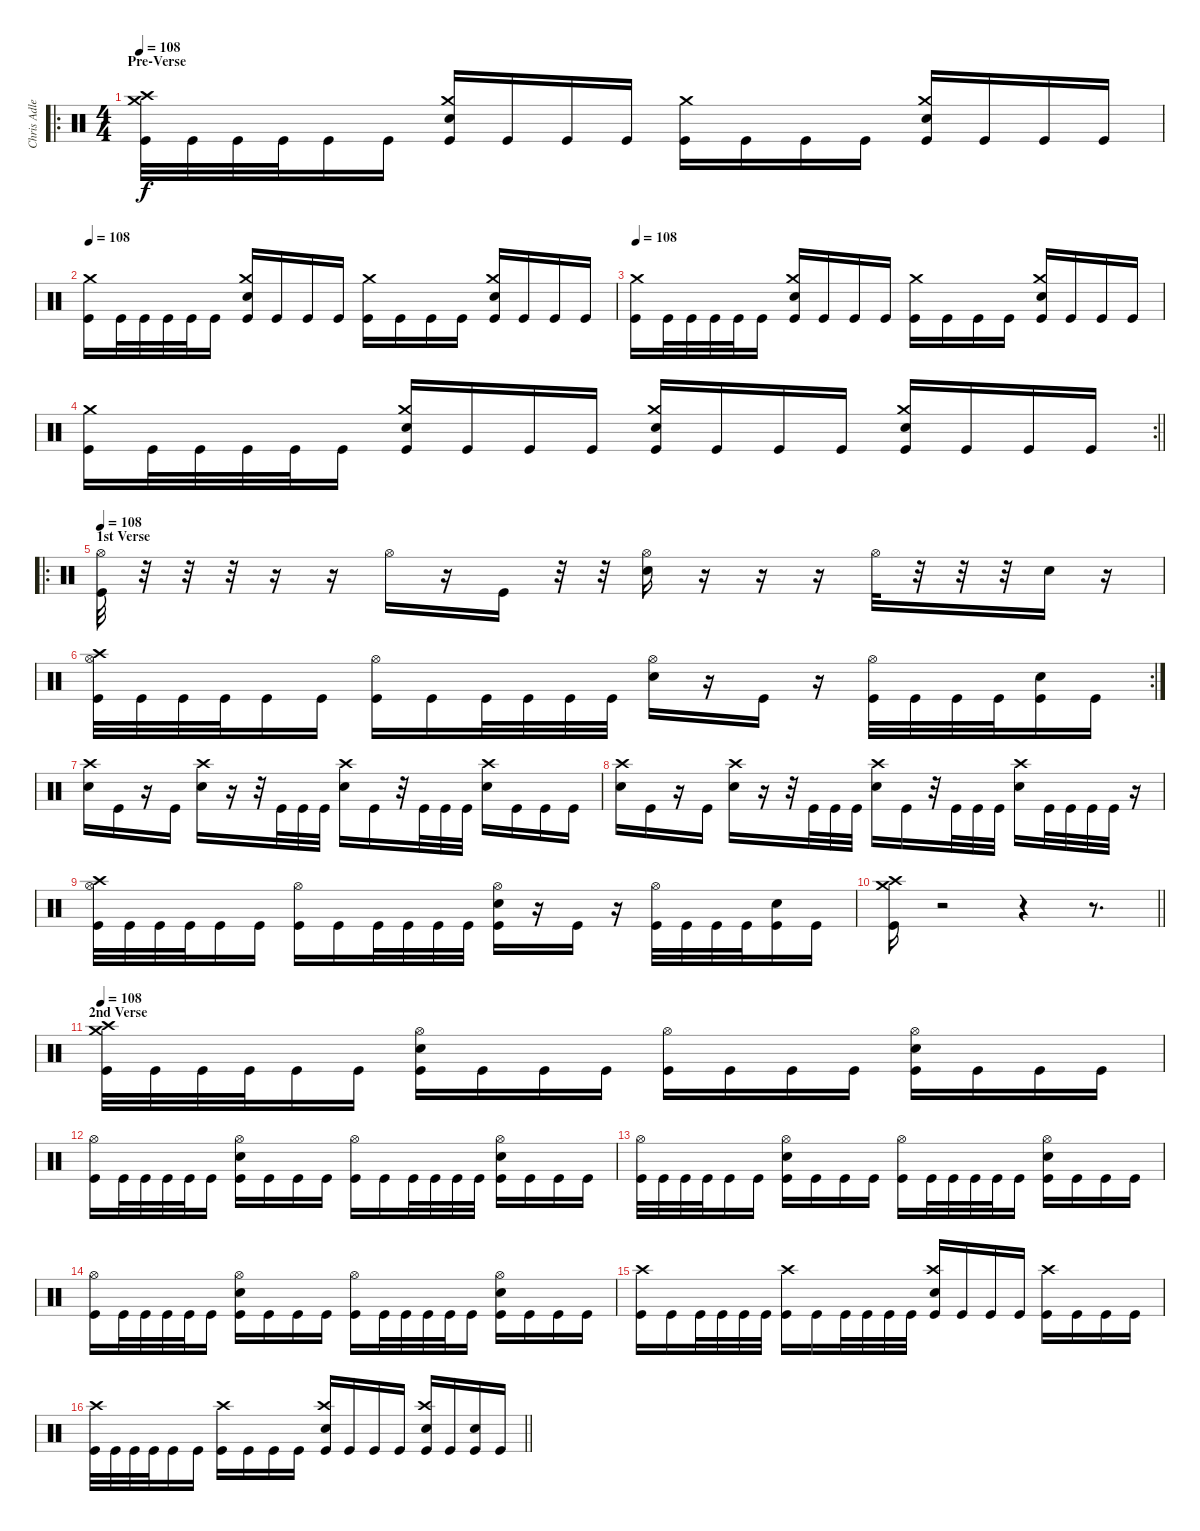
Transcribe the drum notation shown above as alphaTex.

\track ("Chris Adler (Drumkit)" "Chris Adle") {instrument percussion}
\staff {score}
\articulation defaults
\ro
\ts (4 4)
\section ("" "Pre-Verse")
\tempo 108
\clef neutral
\ks c
("Kick (hit)" "Crash high (hit)" "Crash medium (hit)").32{dy f} "Kick (hit)".32 "Kick (hit)".32 "Kick (hit)".32 "Kick (hit)".16 "Kick (hit)".16 ("Kick (hit)" "Snare (hit) 2" "Crash medium (hit)").16 "Kick (hit)".16 "Kick (hit)".16 "Kick (hit)".16 ("Kick (hit)" "Crash medium (hit)").16 "Kick (hit)".16 "Kick (hit)".16 "Kick (hit)".16 ("Kick (hit)" "Snare (hit) 2" "Crash medium (hit)").16 "Kick (hit)".16 "Kick (hit)".16 "Kick (hit)".16 |
\tempo 108
("Kick (hit)" "Crash medium (hit)").16 "Kick (hit)".32 "Kick (hit)".32 "Kick (hit)".32 "Kick (hit)".32 "Kick (hit)".16 ("Kick (hit)" "Snare (hit) 2" "Crash medium (hit)").16 "Kick (hit)".16 "Kick (hit)".16 "Kick (hit)".16 ("Kick (hit)" "Crash medium (hit)").16 "Kick (hit)".16 "Kick (hit)".16 "Kick (hit)".16 ("Kick (hit)" "Snare (hit) 2" "Crash medium (hit)").16 "Kick (hit)".16 "Kick (hit)".16 "Kick (hit)".16 |
\tempo 108
("Kick (hit)" "Crash medium (hit)").16 "Kick (hit)".32 "Kick (hit)".32 "Kick (hit)".32 "Kick (hit)".32 "Kick (hit)".16 ("Kick (hit)" "Snare (hit) 2" "Crash medium (hit)").16 "Kick (hit)".16 "Kick (hit)".16 "Kick (hit)".16 ("Kick (hit)" "Crash medium (hit)").16 "Kick (hit)".16 "Kick (hit)".16 "Kick (hit)".16 ("Kick (hit)" "Snare (hit) 2" "Crash medium (hit)").16 "Kick (hit)".16 "Kick (hit)".16 "Kick (hit)".16 |
\rc 2
\barLineRight lightlight
("Kick (hit)" "Crash medium (hit)").16 "Kick (hit)".32 "Kick (hit)".32 "Kick (hit)".32 "Kick (hit)".32 "Kick (hit)".16 ("Kick (hit)" "Snare (hit) 2" "Crash medium (hit)").16 "Kick (hit)".16 "Kick (hit)".16 "Kick (hit)".16 ("Kick (hit)" "Snare (hit) 2" "Crash medium (hit)").16 "Kick (hit)".16 "Kick (hit)".16 "Kick (hit)".16 ("Kick (hit)" "Snare (hit) 2" "Crash medium (hit)").16 "Kick (hit)".16 "Kick (hit)".16 "Kick (hit)".16 |
\ro
\section ("" "1st Verse")
\tempo 108
("Kick (hit)" "Hi-Hat (open)").32 r.32 r.32 r.32 r.16 r.16 "Hi-Hat (open)".16 r.16 "Kick (hit)".16 r.32 r.32 ("Snare (hit) 2" "Hi-Hat (open)").16 r.16 r.16 r.16 "Hi-Hat (open)".32 r.32 r.32 r.32 "Snare (hit) 2".16 r.16 |
\rc 2
("Kick (hit)" "Crash high (hit)" "Hi-Hat (open)").32 "Kick (hit)".32 "Kick (hit)".32 "Kick (hit)".32 "Kick (hit)".16 "Kick (hit)".16 ("Kick (hit)" "Hi-Hat (open)").16 "Kick (hit)".16 "Kick (hit)".32 "Kick (hit)".32 "Kick (hit)".32 "Kick (hit)".32 ("Snare (hit) 2" "Hi-Hat (open)").16 r.16 "Kick (hit)".16 r.16 ("Kick (hit)" "Hi-Hat (open)").32 "Kick (hit)".32 "Kick (hit)".32 "Kick (hit)".32 ("Kick (hit)" "Snare (hit) 2").16 "Kick (hit)".16 |
("Snare (hit) 2" "Crash high (hit)").16 "Kick (hit)".16 r.16 "Kick (hit)".16 ("Snare (hit) 2" "Crash high (hit)").16 r.16 r.32 "Kick (hit)".32 "Kick (hit)".32 "Kick (hit)".32 ("Snare (hit) 2" "Crash high (hit)").16 "Kick (hit)".16 r.32 "Kick (hit)".32 "Kick (hit)".32 "Kick (hit)".32 ("Snare (hit) 2" "Crash high (hit)").16 "Kick (hit)".16 "Kick (hit)".16 "Kick (hit)".16 |
("Snare (hit) 2" "Crash high (hit)").16 "Kick (hit)".16 r.16 "Kick (hit)".16 ("Snare (hit) 2" "Crash high (hit)").16 r.16 r.32 "Kick (hit)".32 "Kick (hit)".32 "Kick (hit)".32 ("Snare (hit) 2" "Crash high (hit)").16 "Kick (hit)".16 r.32 "Kick (hit)".32 "Kick (hit)".32 "Kick (hit)".32 ("Snare (hit) 2" "Crash high (hit)").16 "Kick (hit)".32 "Kick (hit)".32 "Kick (hit)".32 "Kick (hit)".32 r.16 |
("Kick (hit)" "Crash high (hit)" "Hi-Hat (open)").32 "Kick (hit)".32 "Kick (hit)".32 "Kick (hit)".32 "Kick (hit)".16 "Kick (hit)".16 ("Kick (hit)" "Hi-Hat (open)").16 "Kick (hit)".16 "Kick (hit)".32 "Kick (hit)".32 "Kick (hit)".32 "Kick (hit)".32 ("Kick (hit)" "Snare (hit) 2" "Hi-Hat (open)").16 r.16 "Kick (hit)".16 r.16 ("Kick (hit)" "Hi-Hat (open)").32 "Kick (hit)".32 "Kick (hit)".32 "Kick (hit)".32 ("Kick (hit)" "Snare (hit) 2").16 "Kick (hit)".16 |
\barLineRight lightlight
("Kick (hit)" "Crash medium (hit)" "Crash high (hit)").16 r.2 r.4 r.8{d} |
\section ("" "2nd Verse")
\tempo 108
("Kick (hit)" "Crash high (hit)" "Crash medium (hit)").32 "Kick (hit)".32 "Kick (hit)".32 "Kick (hit)".32 "Kick (hit)".16 "Kick (hit)".16 ("Kick (hit)" "Snare (hit) 2" "Hi-Hat (open)").16 "Kick (hit)".16 "Kick (hit)".16 "Kick (hit)".16 ("Kick (hit)" "Hi-Hat (open)").16 "Kick (hit)".16 "Kick (hit)".16 "Kick (hit)".16 ("Kick (hit)" "Snare (hit) 2" "Hi-Hat (open)").16 "Kick (hit)".16 "Kick (hit)".16 "Kick (hit)".16 |
("Kick (hit)" "Hi-Hat (open)").16 "Kick (hit)".32 "Kick (hit)".32 "Kick (hit)".32 "Kick (hit)".32 "Kick (hit)".16 ("Kick (hit)" "Snare (hit) 2" "Hi-Hat (open)").16 "Kick (hit)".16 "Kick (hit)".16 "Kick (hit)".16 ("Kick (hit)" "Hi-Hat (open)").16 "Kick (hit)".16 "Kick (hit)".32 "Kick (hit)".32 "Kick (hit)".32 "Kick (hit)".32 ("Kick (hit)" "Snare (hit) 2" "Hi-Hat (open)").16 "Kick (hit)".16 "Kick (hit)".16 "Kick (hit)".16 |
("Kick (hit)" "Hi-Hat (open)").32 "Kick (hit)".32 "Kick (hit)".32 "Kick (hit)".32 "Kick (hit)".16 "Kick (hit)".16 ("Kick (hit)" "Snare (hit) 2" "Hi-Hat (open)").16 "Kick (hit)".16 "Kick (hit)".16 "Kick (hit)".16 ("Kick (hit)" "Hi-Hat (open)").16 "Kick (hit)".32 "Kick (hit)".32 "Kick (hit)".32 "Kick (hit)".32 "Kick (hit)".16 ("Kick (hit)" "Snare (hit) 2" "Hi-Hat (open)").16 "Kick (hit)".16 "Kick (hit)".16 "Kick (hit)".16 |
("Kick (hit)" "Hi-Hat (open)").16 "Kick (hit)".32 "Kick (hit)".32 "Kick (hit)".32 "Kick (hit)".32 "Kick (hit)".16 ("Kick (hit)" "Snare (hit) 2" "Hi-Hat (open)").16 "Kick (hit)".16 "Kick (hit)".16 "Kick (hit)".16 ("Kick (hit)" "Hi-Hat (open)").16 "Kick (hit)".32 "Kick (hit)".32 "Kick (hit)".32 "Kick (hit)".32 "Kick (hit)".16 ("Kick (hit)" "Snare (hit) 2" "Hi-Hat (open)").16 "Kick (hit)".16 "Kick (hit)".16 "Kick (hit)".16 |
("Kick (hit)" "Crash high (hit)").16 "Kick (hit)".16 "Kick (hit)".32 "Kick (hit)".32 "Kick (hit)".32 "Kick (hit)".32 ("Kick (hit)" "Crash high (hit)").16 "Kick (hit)".16 "Kick (hit)".32 "Kick (hit)".32 "Kick (hit)".32 "Kick (hit)".32 ("Kick (hit)" "Snare (hit) 2" "Crash high (hit)").16 "Kick (hit)".16 "Kick (hit)".16 "Kick (hit)".16 ("Kick (hit)" "Crash high (hit)").16 "Kick (hit)".16 "Kick (hit)".16 "Kick (hit)".16 |
\barLineRight lightlight
("Kick (hit)" "Crash high (hit)").32 "Kick (hit)".32 "Kick (hit)".32 "Kick (hit)".32 "Kick (hit)".16 "Kick (hit)".16 ("Kick (hit)" "Crash high (hit)").16 "Kick (hit)".16 "Kick (hit)".16 "Kick (hit)".16 ("Kick (hit)" "Snare (hit) 2" "Crash high (hit)").16 "Kick (hit)".16 "Kick (hit)".16 "Kick (hit)".16 ("Kick (hit)" "Snare (hit) 2" "Crash high (hit)").16 "Kick (hit)".16 ("Kick (hit)" "Snare (hit) 2").16 "Kick (hit)".16
